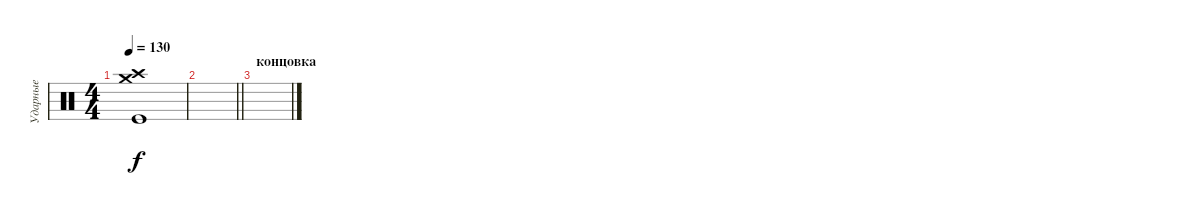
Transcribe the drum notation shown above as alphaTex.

\track ("Ударные" "Ударные") {solo instrument percussion}
\staff {score}
\articulation defaults
\ts (4 4)
\tempo 130
\clef neutral
\ks c
("Crash medium (hit)" "Crash high (hit)" "Kick (hit)").1{dy f} |
\barLineRight lightlight
|
\section ("" "концовка")
